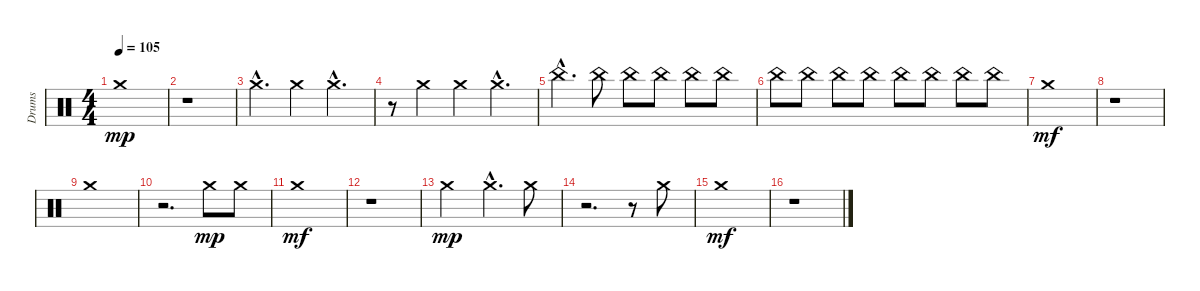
\track ("Drums" "Drums") {instrument percussion}
\staff {score}
\articulation defaults
\ts (4 4)
\tempo 105
\clef neutral
\ks c "Crash medium (hit)".1{dy mp}
|
r.1 |
"Crash medium (hit)"{hac}.4{d} "Crash medium (hit)".4 "Crash medium (hit)"{hac}.4{d} |
r.8 "Crash medium (hit)".4 "Crash medium (hit)".4 "Crash medium (hit)"{hac}.4{d} |
"China (hit)"{hac}.4{d} "China (hit)".8 "China (hit)".8 "China (hit)".8 "China (hit)".8 "China (hit)".8 |
"China (hit)".8 "China (hit)".8 "China (hit)".8 "China (hit)".8 "China (hit)".8 "China (hit)".8 "China (hit)".8 "China (hit)".8 |
"Crash medium (hit)".1{dy mf} |
r.1 |
"Crash medium (hit)".1 |
r.2{d} "Crash medium (hit)".8{dy mp} "Crash medium (hit)".8 |
"Crash medium (hit)".1{dy mf} |
r.1 |
"Crash medium (hit)".2{dy mp} "Crash medium (hit)"{hac}.4{d} "Crash medium (hit)".8 |
r.2{d} r.8 "Crash medium (hit)".8 |
"Crash medium (hit)".1{dy mf} |
r.1
